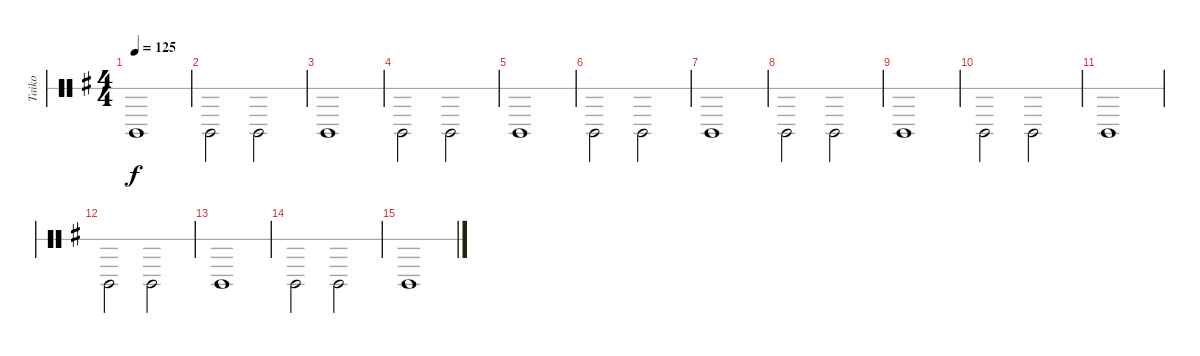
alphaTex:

\defaultSystemsLayout 4
\bracketExtendMode groupsimilarinstruments
\otherSystemsTrackNameOrientation horizontal
\track ("Taiko Drum" "Taiko") {instrument percussion}
\staff {score 1}
\articulation defaults
\ts (4 4)
\tempo 125
\clef neutral
\scale
0.333333
\ks g "Timbale low (hit)"{acc forcenatural}.1{dy f beam Down}
|
\scale
0.333333 "Timbale low (hit)"{acc forcenatural}.2{beam Down} "Timbale low (hit)"{acc forcenatural}.2{beam Down} |
\scale
0.333333 "Timbale low (hit)"{acc forcenatural}.1{beam Down} |
\scale
0.333333 "Timbale low (hit)"{acc forcenatural}.2{beam Down} "Timbale low (hit)"{acc forcenatural}.2{beam Down} |
\scale
0.333333 "Timbale low (hit)"{acc forcenatural}.1{beam Down} |
\scale
0.333333 "Timbale low (hit)"{acc forcenatural}.2{beam Down} "Timbale low (hit)"{acc forcenatural}.2{beam Down} |
\scale
0.333333 "Timbale low (hit)"{acc forcenatural}.1{beam Down} |
\scale
0.333333 "Timbale low (hit)"{acc forcenatural}.2{beam Down} "Timbale low (hit)"{acc forcenatural}.2{beam Down} |
\scale
0.333333 "Timbale low (hit)"{acc forcenatural}.1{beam Down} |
\scale
0.333333 "Timbale low (hit)"{acc forcenatural}.2{beam Down} "Timbale low (hit)"{acc forcenatural}.2{beam Down} |
\scale
0.333333 "Timbale low (hit)"{acc forcenatural}.1{beam Down} |
\scale
0.333333 "Timbale low (hit)"{acc forcenatural}.2{beam Down} "Timbale low (hit)"{acc forcenatural}.2{beam Down} |
\scale
0.333333 "Timbale low (hit)"{acc forcenatural}.1{beam Down} |
\scale
0.333333 "Timbale low (hit)"{acc forcenatural}.2{beam Down} "Timbale low (hit)"{acc forcenatural}.2{beam Down} |
\scale
0.333333 "Timbale low (hit)"{acc forcenatural}.1{beam Down} |
\scale
0.333333
